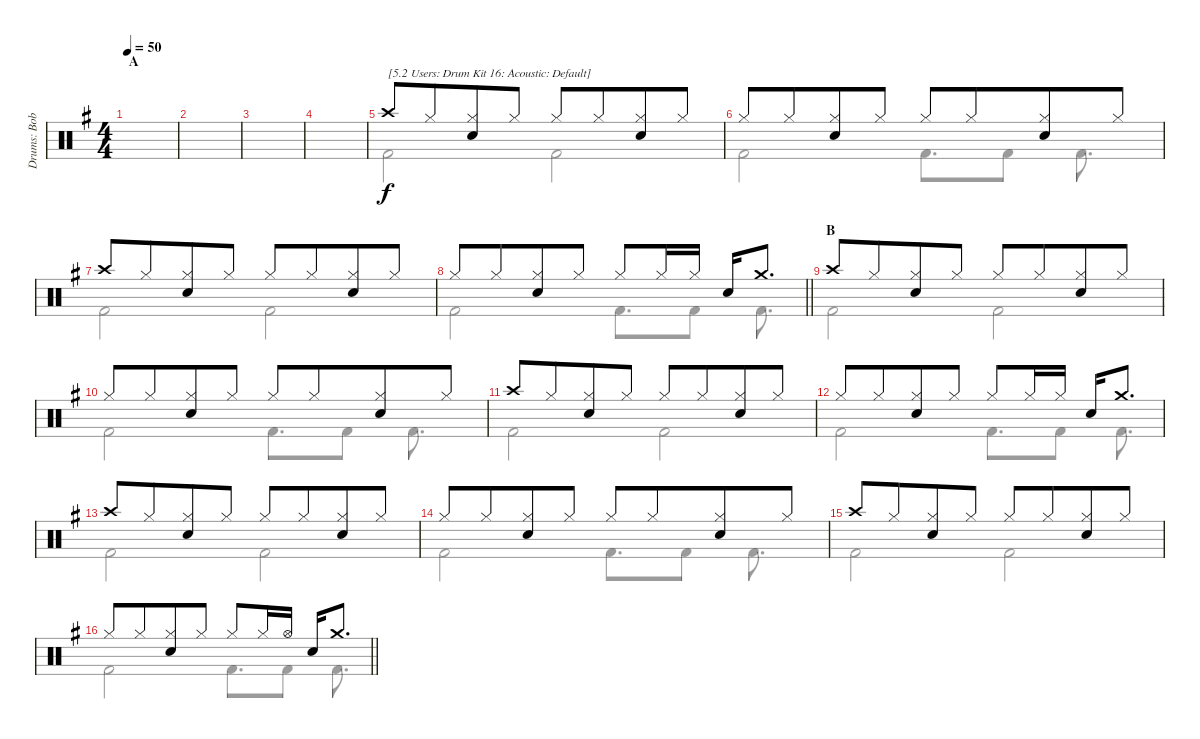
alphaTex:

\track ("Drums: Bobby" "Drums: Bob") {instrument percussion}
\staff {score}
\articulation defaults
\voice
\ts (4 4)
\section ("" "A")
\tempo 50
\clef neutral
\ks g
|
|
|
|
"Crash high (hit)".8{txt "[5.2 Users: Drum Kit 16: Acoustic: Default]"} "Hi-Hat (closed)".8{beam merge} ("Hi-Hat (closed)" "Snare (hit) 2").8 "Hi-Hat (closed)".8 "Hi-Hat (closed)".8 "Hi-Hat (closed)".8{beam merge} ("Hi-Hat (closed)" "Snare (hit) 2").8 "Hi-Hat (closed)".8 |
"Hi-Hat (closed)".8 "Hi-Hat (closed)".8{beam merge} ("Hi-Hat (closed)" "Snare (hit) 2").8 "Hi-Hat (closed)".8 "Hi-Hat (closed)".8 "Hi-Hat (closed)".8{beam merge} ("Hi-Hat (closed)" "Snare (hit) 2").8 "Hi-Hat (closed)".8 |
"Crash high (hit)".8 "Hi-Hat (closed)".8{beam merge} ("Hi-Hat (closed)" "Snare (hit) 2").8 "Hi-Hat (closed)".8 "Hi-Hat (closed)".8 "Hi-Hat (closed)".8{beam merge} ("Hi-Hat (closed)" "Snare (hit) 2").8 "Hi-Hat (closed)".8 |
\barLineRight lightlight "Hi-Hat (closed)".8 "Hi-Hat (closed)".8{beam merge}
("Hi-Hat (closed)" "Snare (hit) 2").8 "Hi-Hat (closed)".8 "Hi-Hat (closed)".8 "Hi-Hat (closed)".16{beam merge} "Hi-Hat (closed)".16 "Snare (hit) 2".16 "Crash medium (hit)".8{d} |
\section ("" "B")
"Crash high (hit)".8 "Hi-Hat (closed)".8{beam merge} ("Hi-Hat (closed)" "Snare (hit) 2").8 "Hi-Hat (closed)".8 "Hi-Hat (closed)".8 "Hi-Hat (closed)".8{beam merge} ("Hi-Hat (closed)" "Snare (hit) 2").8 "Hi-Hat (closed)".8 |
"Hi-Hat (closed)".8 "Hi-Hat (closed)".8{beam merge} ("Hi-Hat (closed)" "Snare (hit) 2").8 "Hi-Hat (closed)".8 "Hi-Hat (closed)".8 "Hi-Hat (closed)".8{beam merge} ("Hi-Hat (closed)" "Snare (hit) 2").8 "Hi-Hat (closed)".8 |
"Crash high (hit)".8 "Hi-Hat (closed)".8{beam merge} ("Hi-Hat (closed)" "Snare (hit) 2").8 "Hi-Hat (closed)".8 "Hi-Hat (closed)".8 "Hi-Hat (closed)".8{beam merge} ("Hi-Hat (closed)" "Snare (hit) 2").8 "Hi-Hat (closed)".8 |
"Hi-Hat (closed)".8 "Hi-Hat (closed)".8{beam merge} ("Hi-Hat (closed)" "Snare (hit) 2").8 "Hi-Hat (closed)".8 "Hi-Hat (closed)".8 "Hi-Hat (closed)".16{beam merge} "Hi-Hat (closed)".16 "Snare (hit) 2".16 "Crash medium (hit)".8{d} |
"Crash high (hit)".8 "Hi-Hat (closed)".8{beam merge} ("Hi-Hat (closed)" "Snare (hit) 2").8 "Hi-Hat (closed)".8 "Hi-Hat (closed)".8 "Hi-Hat (closed)".8{beam merge} ("Hi-Hat (closed)" "Snare (hit) 2").8 "Hi-Hat (closed)".8 |
"Hi-Hat (closed)".8 "Hi-Hat (closed)".8{beam merge} ("Hi-Hat (closed)" "Snare (hit) 2").8 "Hi-Hat (closed)".8 "Hi-Hat (closed)".8 "Hi-Hat (closed)".8{beam merge} ("Hi-Hat (closed)" "Snare (hit) 2").8 "Hi-Hat (closed)".8 |
"Crash high (hit)".8 "Hi-Hat (closed)".8{beam merge} ("Hi-Hat (closed)" "Snare (hit) 2").8 "Hi-Hat (closed)".8 "Hi-Hat (closed)".8 "Hi-Hat (closed)".8{beam merge} ("Hi-Hat (closed)" "Snare (hit) 2").8 "Hi-Hat (closed)".8 |
\barLineRight lightlight "Hi-Hat (closed)".8 "Hi-Hat (closed)".8{beam merge}
("Hi-Hat (closed)" "Snare (hit) 2").8 "Hi-Hat (closed)".8 "Hi-Hat (closed)".8 "Hi-Hat (closed)".16{beam merge} "Hi-Hat (open)".16 "Snare (hit) 2".16 "Crash medium (hit)".8{d}
\voice
\clef neutral
\ottava regular
\simile none
\ks g
|
|
|
|
"Kick (hit) 2".2 "Kick (hit) 2".2 |
"Kick (hit) 2".2 "Kick (hit) 2".8{d} "Kick (hit) 2".8 "Kick (hit) 2".8{d} |
"Kick (hit) 2".2 "Kick (hit) 2".2 |
\barLineRight lightlight "Kick (hit) 2".2 "Kick (hit) 2".8{d} "Kick (hit) 2".8 "Kick (hit) 2".8{d}
|
"Kick (hit) 2".2 "Kick (hit) 2".2 |
"Kick (hit) 2".2 "Kick (hit) 2".8{d} "Kick (hit) 2".8 "Kick (hit) 2".8{d} |
"Kick (hit) 2".2 "Kick (hit) 2".2 |
"Kick (hit) 2".2 "Kick (hit) 2".8{d} "Kick (hit) 2".8 "Kick (hit) 2".8{d} |
"Kick (hit) 2".2 "Kick (hit) 2".2 |
"Kick (hit) 2".2 "Kick (hit) 2".8{d} "Kick (hit) 2".8 "Kick (hit) 2".8{d} |
"Kick (hit) 2".2 "Kick (hit) 2".2 |
\barLineRight lightlight "Kick (hit) 2".2 "Kick (hit) 2".8{d} "Kick (hit) 2".8 "Kick (hit) 2".8{d}
